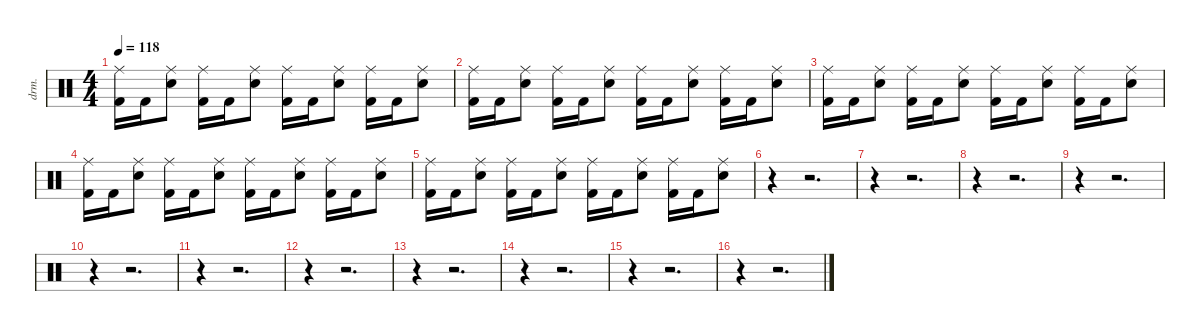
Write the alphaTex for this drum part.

\defaultSystemsLayout 4
\hideDynamics
\bracketExtendMode nobrackets
\otherSystemsTrackNameOrientation horizontal
\track ("Drums" "drm.") {instrument percussion}
\staff {score}
\articulation defaults
\ts (4 4)
\tempo 118
\clef neutral
\ks c
("Ride (middle)" "Kick (hit) 2").16{dy f beam Down} "Kick (hit) 2".16{beam Down} ("Ride (middle)" "Snare (hit) 2").8{beam Down} ("Ride (middle)" "Kick (hit) 2").16{beam Down} "Kick (hit) 2".16{beam Down} ("Ride (middle)" "Snare (hit) 2").8{beam Down} ("Ride (middle)" "Kick (hit) 2").16{beam Down} "Kick (hit) 2".16{beam Down} ("Ride (middle)" "Snare (hit) 2").8{beam Down} ("Ride (middle)" "Kick (hit) 2").16{beam Down} "Kick (hit) 2".16{beam Down} ("Ride (middle)" "Snare (hit) 2").8{beam Down} |
("Ride (middle)" "Kick (hit) 2").16{beam Down} "Kick (hit) 2".16{beam Down} ("Ride (middle)" "Snare (hit) 2").8{beam Down} ("Ride (middle)" "Kick (hit) 2").16{beam Down} "Kick (hit) 2".16{beam Down} ("Ride (middle)" "Snare (hit) 2").8{beam Down} ("Ride (middle)" "Kick (hit) 2").16{beam Down} "Kick (hit) 2".16{beam Down} ("Ride (middle)" "Snare (hit) 2").8{beam Down} ("Ride (middle)" "Kick (hit) 2").16{beam Down} "Kick (hit) 2".16{beam Down} ("Ride (middle)" "Snare (hit) 2").8{beam Down} |
("Ride (middle)" "Kick (hit) 2").16{beam Down} "Kick (hit) 2".16{beam Down} ("Ride (middle)" "Snare (hit) 2").8{beam Down} ("Ride (middle)" "Kick (hit) 2").16{beam Down} "Kick (hit) 2".16{beam Down} ("Ride (middle)" "Snare (hit) 2").8{beam Down} ("Ride (middle)" "Kick (hit) 2").16{beam Down} "Kick (hit) 2".16{beam Down} ("Ride (middle)" "Snare (hit) 2").8{beam Down} ("Ride (middle)" "Kick (hit) 2").16{beam Down} "Kick (hit) 2".16{beam Down} ("Ride (middle)" "Snare (hit) 2").8{beam Down} |
("Ride (middle)" "Kick (hit) 2").16{beam Down} "Kick (hit) 2".16{beam Down} ("Ride (middle)" "Snare (hit) 2").8{beam Down} ("Ride (middle)" "Kick (hit) 2").16{beam Down} "Kick (hit) 2".16{beam Down} ("Ride (middle)" "Snare (hit) 2").8{beam Down} ("Ride (middle)" "Kick (hit) 2").16{beam Down} "Kick (hit) 2".16{beam Down} ("Ride (middle)" "Snare (hit) 2").8{beam Down} ("Ride (middle)" "Kick (hit) 2").16{beam Down} "Kick (hit) 2".16{beam Down} ("Ride (middle)" "Snare (hit) 2").8{beam Down} |
("Ride (middle)" "Kick (hit) 2").16{beam Down} "Kick (hit) 2".16{beam Down} ("Ride (middle)" "Snare (hit) 2").8{beam Down} ("Ride (middle)" "Kick (hit) 2").16{beam Down} "Kick (hit) 2".16{beam Down} ("Ride (middle)" "Snare (hit) 2").8{beam Down} ("Ride (middle)" "Kick (hit) 2").16{beam Down} "Kick (hit) 2".16{beam Down} ("Ride (middle)" "Snare (hit) 2").8{beam Down} ("Ride (middle)" "Kick (hit) 2").16{beam Down} "Kick (hit) 2".16{beam Down} ("Ride (middle)" "Snare (hit) 2").8{beam Down} |
r.4{beam Down} r.2{d beam Down} |
r.4{beam Down} r.2{d beam Down} |
r.4{beam Down} r.2{d beam Down} |
r.4{beam Down} r.2{d beam Down} |
r.4{beam Down} r.2{d beam Down} |
r.4{beam Down} r.2{d beam Down} |
r.4{beam Down} r.2{d beam Down} |
r.4{beam Down} r.2{d beam Down} |
r.4{beam Down} r.2{d beam Down} |
r.4{beam Down} r.2{d beam Down} |
r.4{beam Down} r.2{d beam Down}
